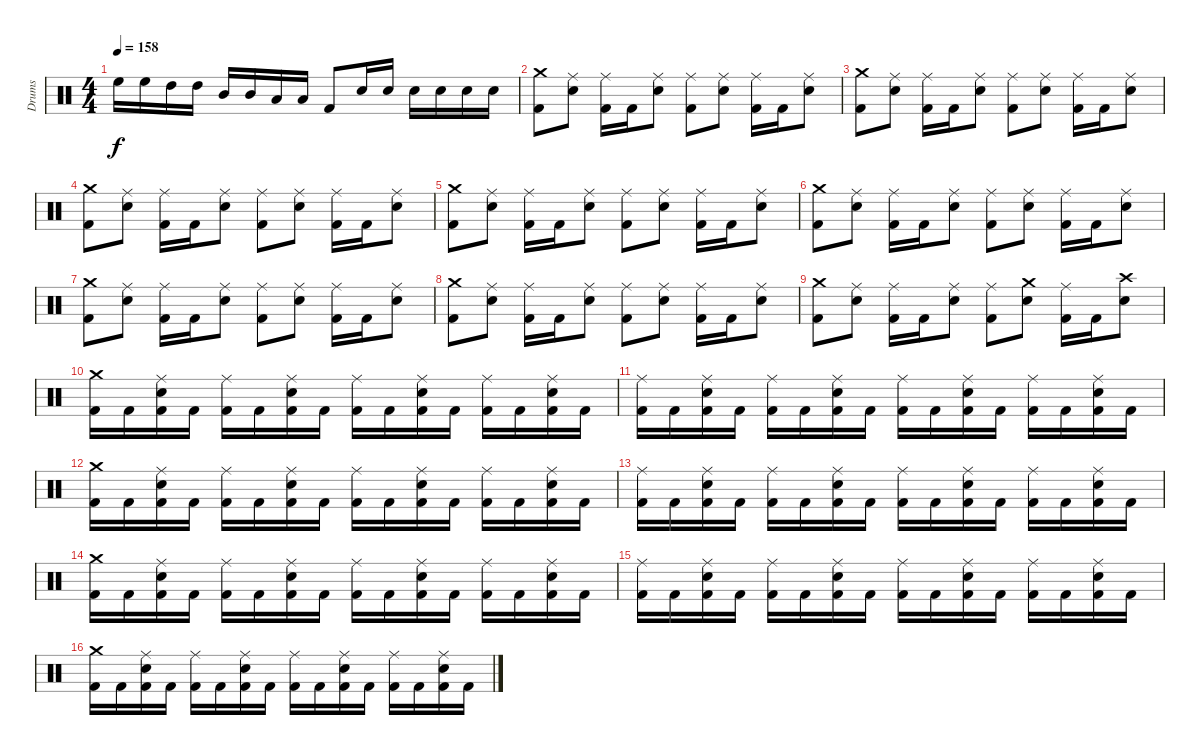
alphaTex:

\track ("Drums" "Drums") {instrument percussion}
\staff {score}
\articulation defaults
\ts (4 4)
\tempo 158
\clef neutral
\ks c "High Floor Tom (hit)".16{dy f} "High Floor Tom (hit)".16 "High Tom (hit)".16 "High Tom (hit)".16 "Mid Tom (hit)".16 "Mid Tom (hit)".16 "Low Tom (hit)".16 "Low Tom (hit)".16 "Kick (hit) 2".8 "Electric Snare (hit)".16 "Electric Snare (hit)".16 "Electric Snare (hit)".16 "Electric Snare (hit)".16 "Electric Snare (hit)".16 "Electric Snare (hit)".16
|
("Crash medium (hit)" "Kick (hit) 2").8 ("Ride (middle)" "Electric Snare (hit)").8 ("Ride (middle)" "Kick (hit) 2").16 "Kick (hit) 2".16 ("Ride (middle)" "Electric Snare (hit)").8 ("Ride (middle)" "Kick (hit) 2").8 ("Ride (middle)" "Electric Snare (hit)").8 ("Ride (middle)" "Kick (hit) 2").16 "Kick (hit) 2".16 ("Ride (middle)" "Electric Snare (hit)").8 |
("Crash medium (hit)" "Kick (hit) 2").8 ("Ride (middle)" "Electric Snare (hit)").8 ("Ride (middle)" "Kick (hit) 2").16 "Kick (hit) 2".16 ("Ride (middle)" "Electric Snare (hit)").8 ("Ride (middle)" "Kick (hit) 2").8 ("Ride (middle)" "Electric Snare (hit)").8 ("Ride (middle)" "Kick (hit) 2").16 "Kick (hit) 2".16 ("Ride (middle)" "Electric Snare (hit)").8 |
("Crash medium (hit)" "Kick (hit) 2").8 ("Ride (middle)" "Electric Snare (hit)").8 ("Ride (middle)" "Kick (hit) 2").16 "Kick (hit) 2".16 ("Ride (middle)" "Electric Snare (hit)").8 ("Ride (middle)" "Kick (hit) 2").8 ("Ride (middle)" "Electric Snare (hit)").8 ("Ride (middle)" "Kick (hit) 2").16 "Kick (hit) 2".16 ("Ride (middle)" "Electric Snare (hit)").8 |
("Crash medium (hit)" "Kick (hit) 2").8 ("Ride (middle)" "Electric Snare (hit)").8 ("Ride (middle)" "Kick (hit) 2").16 "Kick (hit) 2".16 ("Ride (middle)" "Electric Snare (hit)").8 ("Ride (middle)" "Kick (hit) 2").8 ("Ride (middle)" "Electric Snare (hit)").8 ("Ride (middle)" "Kick (hit) 2").16 "Kick (hit) 2".16 ("Ride (middle)" "Electric Snare (hit)").8 |
("Crash medium (hit)" "Kick (hit) 2").8 ("Ride (middle)" "Electric Snare (hit)").8 ("Ride (middle)" "Kick (hit) 2").16 "Kick (hit) 2".16 ("Ride (middle)" "Electric Snare (hit)").8 ("Ride (middle)" "Kick (hit) 2").8 ("Ride (middle)" "Electric Snare (hit)").8 ("Ride (middle)" "Kick (hit) 2").16 "Kick (hit) 2".16 ("Ride (middle)" "Electric Snare (hit)").8 |
("Crash medium (hit)" "Kick (hit) 2").8 ("Ride (middle)" "Electric Snare (hit)").8 ("Ride (middle)" "Kick (hit) 2").16 "Kick (hit) 2".16 ("Ride (middle)" "Electric Snare (hit)").8 ("Ride (middle)" "Kick (hit) 2").8 ("Ride (middle)" "Electric Snare (hit)").8 ("Ride (middle)" "Kick (hit) 2").16 "Kick (hit) 2".16 ("Ride (middle)" "Electric Snare (hit)").8 |
("Crash medium (hit)" "Kick (hit) 2").8 ("Ride (middle)" "Electric Snare (hit)").8 ("Ride (middle)" "Kick (hit) 2").16 "Kick (hit) 2".16 ("Ride (middle)" "Electric Snare (hit)").8 ("Ride (middle)" "Kick (hit) 2").8 ("Ride (middle)" "Electric Snare (hit)").8 ("Ride (middle)" "Kick (hit) 2").16 "Kick (hit) 2".16 ("Ride (middle)" "Electric Snare (hit)").8 |
("Crash medium (hit)" "Kick (hit) 2").8 ("Ride (middle)" "Electric Snare (hit)").8 ("Ride (middle)" "Kick (hit) 2").16 "Kick (hit) 2".16 ("Ride (middle)" "Electric Snare (hit)").8 ("Ride (middle)" "Kick (hit) 2").8 ("Crash medium (hit)" "Electric Snare (hit)").8 ("Ride (middle)" "Kick (hit) 2").16 "Kick (hit) 2".16 ("Crash high (hit)" "Electric Snare (hit)").8 |
("Crash medium (hit)" "Kick (hit) 2").16 "Kick (hit) 2".16 ("Ride (middle)" "Electric Snare (hit)" "Kick (hit) 2").16 "Kick (hit) 2".16 ("Ride (middle)" "Kick (hit) 2").16 "Kick (hit) 2".16 ("Ride (middle)" "Electric Snare (hit)" "Kick (hit) 2").16 "Kick (hit) 2".16 ("Ride (middle)" "Kick (hit) 2").16 "Kick (hit) 2".16 ("Ride (middle)" "Electric Snare (hit)" "Kick (hit) 2").16 "Kick (hit) 2".16 ("Ride (middle)" "Kick (hit) 2").16 "Kick (hit) 2".16 ("Ride (middle)" "Electric Snare (hit)" "Kick (hit) 2").16 "Kick (hit) 2".16 |
("Ride (middle)" "Kick (hit) 2").16 "Kick (hit) 2".16 ("Ride (middle)" "Electric Snare (hit)" "Kick (hit) 2").16 "Kick (hit) 2".16 ("Ride (middle)" "Kick (hit) 2").16 "Kick (hit) 2".16 ("Ride (middle)" "Electric Snare (hit)" "Kick (hit) 2").16 "Kick (hit) 2".16 ("Ride (middle)" "Kick (hit) 2").16 "Kick (hit) 2".16 ("Ride (middle)" "Electric Snare (hit)" "Kick (hit) 2").16 "Kick (hit) 2".16 ("Ride (middle)" "Kick (hit) 2").16 "Kick (hit) 2".16 ("Ride (middle)" "Electric Snare (hit)" "Kick (hit) 2").16 "Kick (hit) 2".16 |
("Crash medium (hit)" "Kick (hit) 2").16 "Kick (hit) 2".16 ("Ride (middle)" "Electric Snare (hit)" "Kick (hit) 2").16 "Kick (hit) 2".16 ("Ride (middle)" "Kick (hit) 2").16 "Kick (hit) 2".16 ("Ride (middle)" "Electric Snare (hit)" "Kick (hit) 2").16 "Kick (hit) 2".16 ("Ride (middle)" "Kick (hit) 2").16 "Kick (hit) 2".16 ("Ride (middle)" "Electric Snare (hit)" "Kick (hit) 2").16 "Kick (hit) 2".16 ("Ride (middle)" "Kick (hit) 2").16 "Kick (hit) 2".16 ("Ride (middle)" "Electric Snare (hit)" "Kick (hit) 2").16 "Kick (hit) 2".16 |
("Ride (middle)" "Kick (hit) 2").16 "Kick (hit) 2".16 ("Ride (middle)" "Electric Snare (hit)" "Kick (hit) 2").16 "Kick (hit) 2".16 ("Ride (middle)" "Kick (hit) 2").16 "Kick (hit) 2".16 ("Ride (middle)" "Electric Snare (hit)" "Kick (hit) 2").16 "Kick (hit) 2".16 ("Ride (middle)" "Kick (hit) 2").16 "Kick (hit) 2".16 ("Ride (middle)" "Electric Snare (hit)" "Kick (hit) 2").16 "Kick (hit) 2".16 ("Ride (middle)" "Kick (hit) 2").16 "Kick (hit) 2".16 ("Ride (middle)" "Electric Snare (hit)" "Kick (hit) 2").16 "Kick (hit) 2".16 |
("Crash medium (hit)" "Kick (hit) 2").16 "Kick (hit) 2".16 ("Ride (middle)" "Electric Snare (hit)" "Kick (hit) 2").16 "Kick (hit) 2".16 ("Ride (middle)" "Kick (hit) 2").16 "Kick (hit) 2".16 ("Ride (middle)" "Electric Snare (hit)" "Kick (hit) 2").16 "Kick (hit) 2".16 ("Ride (middle)" "Kick (hit) 2").16 "Kick (hit) 2".16 ("Ride (middle)" "Electric Snare (hit)" "Kick (hit) 2").16 "Kick (hit) 2".16 ("Ride (middle)" "Kick (hit) 2").16 "Kick (hit) 2".16 ("Ride (middle)" "Electric Snare (hit)" "Kick (hit) 2").16 "Kick (hit) 2".16 |
("Ride (middle)" "Kick (hit) 2").16 "Kick (hit) 2".16 ("Ride (middle)" "Electric Snare (hit)" "Kick (hit) 2").16 "Kick (hit) 2".16 ("Ride (middle)" "Kick (hit) 2").16 "Kick (hit) 2".16 ("Ride (middle)" "Electric Snare (hit)" "Kick (hit) 2").16 "Kick (hit) 2".16 ("Ride (middle)" "Kick (hit) 2").16 "Kick (hit) 2".16 ("Ride (middle)" "Electric Snare (hit)" "Kick (hit) 2").16 "Kick (hit) 2".16 ("Ride (middle)" "Kick (hit) 2").16 "Kick (hit) 2".16 ("Ride (middle)" "Electric Snare (hit)" "Kick (hit) 2").16 "Kick (hit) 2".16 |
("Crash medium (hit)" "Kick (hit) 2").16 "Kick (hit) 2".16 ("Ride (middle)" "Electric Snare (hit)" "Kick (hit) 2").16 "Kick (hit) 2".16 ("Ride (middle)" "Kick (hit) 2").16 "Kick (hit) 2".16 ("Ride (middle)" "Electric Snare (hit)" "Kick (hit) 2").16 "Kick (hit) 2".16 ("Ride (middle)" "Kick (hit) 2").16 "Kick (hit) 2".16 ("Ride (middle)" "Electric Snare (hit)" "Kick (hit) 2").16 "Kick (hit) 2".16 ("Ride (middle)" "Kick (hit) 2").16 "Kick (hit) 2".16 ("Ride (middle)" "Electric Snare (hit)" "Kick (hit) 2").16 "Kick (hit) 2".16
